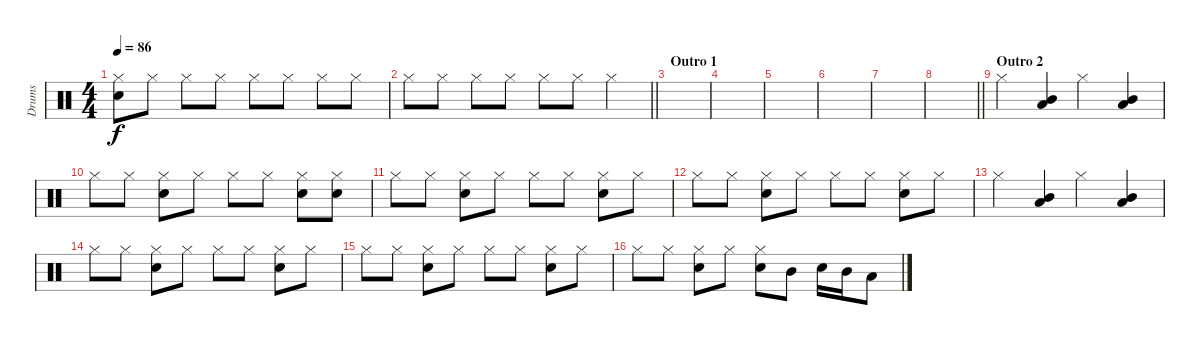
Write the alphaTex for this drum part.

\track ("Drums" "Drums") {instrument percussion}
\staff {score}
\articulation defaults
\ts (4 4)
\tempo 86
\clef neutral
\ks c
("Hi-Hat (closed)" "Snare (hit) 2").8{dy f} "Hi-Hat (closed)".8 "Hi-Hat (closed)".8 "Hi-Hat (closed)".8 "Hi-Hat (closed)".8 "Hi-Hat (closed)".8 "Hi-Hat (closed)".8 "Hi-Hat (closed)".8 |
\barLineRight lightlight "Hi-Hat (closed)".8 "Hi-Hat (closed)".8 "Hi-Hat (closed)".8 "Hi-Hat (closed)".8 "Hi-Hat (closed)".8 "Hi-Hat (closed)".8 "Hi-Hat (closed)".4
|
\section ("" "Outro 1")
|
|
|
|
|
\barLineRight lightlight
|
\section ("" "Outro 2")
"Hi-Hat (closed)".4 ("Mid Tom (hit)" "Low Tom (hit)").4 "Hi-Hat (closed)".4 ("Mid Tom (hit)" "Low Tom (hit)").4 |
"Hi-Hat (closed)".8 "Hi-Hat (closed)".8 ("Hi-Hat (closed)" "Snare (hit) 2").8 "Hi-Hat (closed)".8 "Hi-Hat (closed)".8 "Hi-Hat (closed)".8 ("Hi-Hat (closed)" "Snare (hit) 2").8 ("Hi-Hat (closed)" "Snare (hit) 2").8 |
"Hi-Hat (closed)".8 "Hi-Hat (closed)".8 ("Hi-Hat (closed)" "Snare (hit) 2").8 "Hi-Hat (closed)".8 "Hi-Hat (closed)".8 "Hi-Hat (closed)".8 ("Hi-Hat (closed)" "Snare (hit) 2").8 "Hi-Hat (closed)".8 |
"Hi-Hat (closed)".8 "Hi-Hat (closed)".8 ("Hi-Hat (closed)" "Snare (hit) 2").8 "Hi-Hat (closed)".8 "Hi-Hat (closed)".8 "Hi-Hat (closed)".8 ("Hi-Hat (closed)" "Snare (hit) 2").8 "Hi-Hat (closed)".8 |
"Hi-Hat (closed)".4 ("Mid Tom (hit)" "Low Tom (hit)").4 "Hi-Hat (closed)".4 ("Mid Tom (hit)" "Low Tom (hit)").4 |
"Hi-Hat (closed)".8 "Hi-Hat (closed)".8 ("Hi-Hat (closed)" "Snare (hit) 2").8 "Hi-Hat (closed)".8 "Hi-Hat (closed)".8 "Hi-Hat (closed)".8 ("Hi-Hat (closed)" "Snare (hit) 2").8 "Hi-Hat (closed)".8 |
"Hi-Hat (closed)".8 "Hi-Hat (closed)".8 ("Hi-Hat (closed)" "Snare (hit) 2").8 "Hi-Hat (closed)".8 "Hi-Hat (closed)".8 "Hi-Hat (closed)".8 ("Hi-Hat (closed)" "Snare (hit) 2").8 "Hi-Hat (closed)".8 |
"Hi-Hat (closed)".8 "Hi-Hat (closed)".8 ("Hi-Hat (closed)" "Snare (hit) 2").8 "Hi-Hat (closed)".8 ("Hi-Hat (closed)" "Snare (hit) 2").8 "Mid Tom (hit)".8 "Snare (hit) 2".16 "Mid Tom (hit)".16 "Low Tom (hit)".8
